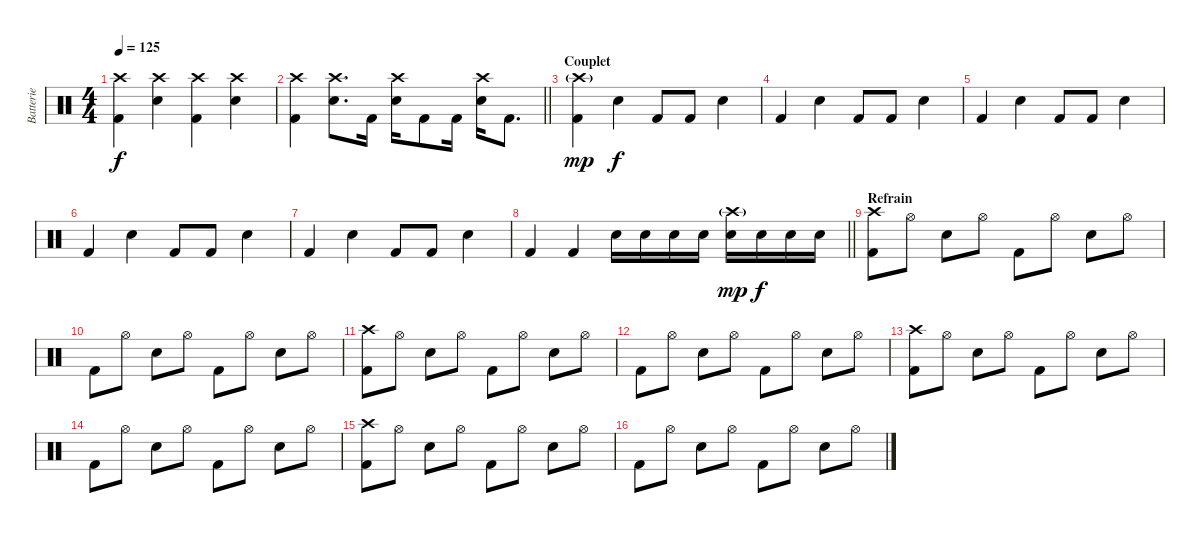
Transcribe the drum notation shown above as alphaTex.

\track ("Batterie" "Batterie") {instrument percussion}
\staff {score}
\articulation defaults
\ts (4 4)
\tempo 125
\clef neutral
\ks c
("Crash high (hit)" "Kick (hit) 2").4{dy f} ("Crash high (hit)" "Electric Snare (hit)").4 ("Crash high (hit)" "Kick (hit) 2").4 ("Crash high (hit)" "Electric Snare (hit)").4 |
\barLineRight lightlight
("Crash high (hit)" "Kick (hit) 2").4 ("Crash high (hit)" "Electric Snare (hit)").8{d} "Kick (hit) 2".16 ("Crash high (hit)" "Electric Snare (hit)").16 "Kick (hit) 2".8 "Kick (hit) 2".16 ("Crash high (hit)" "Electric Snare (hit)").16 "Kick (hit) 2".8{d} |
\section ("" "Couplet")
("Crash high (hit)"{g} "Kick (hit) 2").4{dy mp} "Electric Snare (hit)".4{dy f} "Kick (hit) 2".8 "Kick (hit) 2".8 "Electric Snare (hit)".4 |
"Kick (hit) 2".4 "Electric Snare (hit)".4 "Kick (hit) 2".8 "Kick (hit) 2".8 "Electric Snare (hit)".4 |
"Kick (hit) 2".4 "Electric Snare (hit)".4 "Kick (hit) 2".8 "Kick (hit) 2".8 "Electric Snare (hit)".4 |
"Kick (hit) 2".4 "Electric Snare (hit)".4 "Kick (hit) 2".8 "Kick (hit) 2".8 "Electric Snare (hit)".4 |
"Kick (hit) 2".4 "Electric Snare (hit)".4 "Kick (hit) 2".8 "Kick (hit) 2".8 "Electric Snare (hit)".4 |
\barLineRight lightlight "Kick (hit) 2".4 "Kick (hit) 2".4 "Electric Snare (hit)".16 "Electric Snare (hit)".16 "Electric Snare (hit)".16 "Electric Snare (hit)".16
("Crash high (hit)"{g} "Electric Snare (hit)").16{dy mp} "Electric Snare (hit)".16{dy f} "Electric Snare (hit)".16 "Electric Snare (hit)".16 |
\section ("" "Refrain")
("Crash high (hit)" "Kick (hit) 2").8 "Hi-Hat (open)".8 "Electric Snare (hit)".8 "Hi-Hat (open)".8 "Kick (hit) 2".8 "Hi-Hat (open)".8 "Electric Snare (hit)".8 "Hi-Hat (open)".8 |
"Kick (hit) 2".8 "Hi-Hat (open)".8 "Electric Snare (hit)".8 "Hi-Hat (open)".8 "Kick (hit) 2".8 "Hi-Hat (open)".8 "Electric Snare (hit)".8 "Hi-Hat (open)".8 |
("Crash high (hit)" "Kick (hit) 2").8 "Hi-Hat (open)".8 "Electric Snare (hit)".8 "Hi-Hat (open)".8 "Kick (hit) 2".8 "Hi-Hat (open)".8 "Electric Snare (hit)".8 "Hi-Hat (open)".8 |
"Kick (hit) 2".8 "Hi-Hat (open)".8 "Electric Snare (hit)".8 "Hi-Hat (open)".8 "Kick (hit) 2".8 "Hi-Hat (open)".8 "Electric Snare (hit)".8 "Hi-Hat (open)".8 |
("Crash high (hit)" "Kick (hit) 2").8 "Hi-Hat (open)".8 "Electric Snare (hit)".8 "Hi-Hat (open)".8 "Kick (hit) 2".8 "Hi-Hat (open)".8 "Electric Snare (hit)".8 "Hi-Hat (open)".8 |
"Kick (hit) 2".8 "Hi-Hat (open)".8 "Electric Snare (hit)".8 "Hi-Hat (open)".8 "Kick (hit) 2".8 "Hi-Hat (open)".8 "Electric Snare (hit)".8 "Hi-Hat (open)".8 |
("Crash high (hit)" "Kick (hit) 2").8 "Hi-Hat (open)".8 "Electric Snare (hit)".8 "Hi-Hat (open)".8 "Kick (hit) 2".8 "Hi-Hat (open)".8 "Electric Snare (hit)".8 "Hi-Hat (open)".8 |
"Kick (hit) 2".8 "Hi-Hat (open)".8 "Electric Snare (hit)".8 "Hi-Hat (open)".8 "Kick (hit) 2".8 "Hi-Hat (open)".8 "Electric Snare (hit)".8 "Hi-Hat (open)".8
